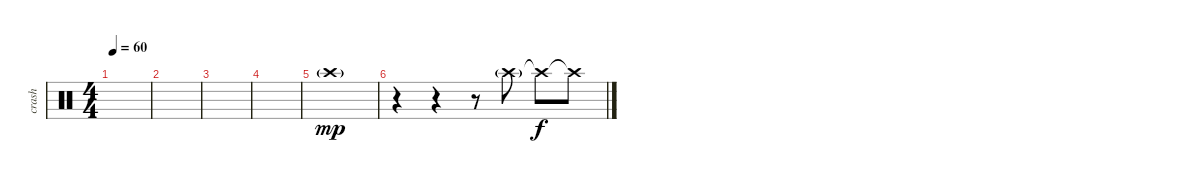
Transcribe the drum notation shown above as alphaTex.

\track ("crash" "crash") {instrument percussion}
\staff {score}
\articulation defaults
\ts (4 4)
\tempo 60
\clef neutral
\ks c
|
|
|
|
"Crash high (hit)"{g}.1{dy mp} |
r.4 r.4 r.8 "Crash high (hit)"{g}.8 "Crash high (hit)"{t}.8{dy f} "Crash high (hit)"{t}.8
